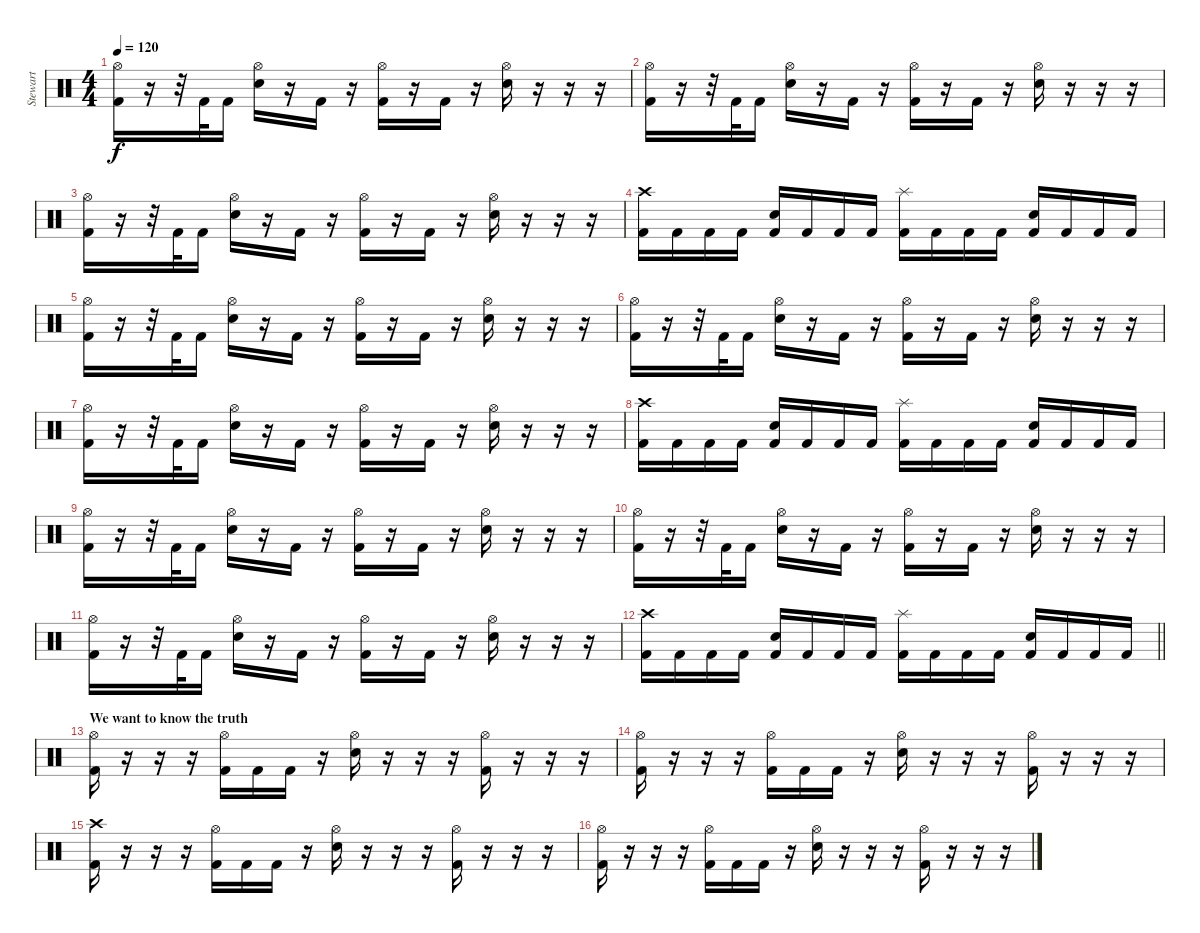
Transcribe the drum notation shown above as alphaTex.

\track ("Stewart" "Stewart") {instrument percussion}
\staff {score}
\articulation defaults
\ts (4 4)
\tempo 120
\clef neutral
\ks c
("Hi-Hat (open)" "Kick (hit) 2").16{dy f} r.16 r.32 "Kick (hit) 2".32 "Kick (hit) 2".16 ("Hi-Hat (open)" "Electric Snare (hit)").16 r.16 "Kick (hit) 2".16 r.16 ("Hi-Hat (open)" "Kick (hit) 2").16 r.16 "Kick (hit) 2".16 r.16 ("Hi-Hat (open)" "Electric Snare (hit)").16 r.16 r.16 r.16 |
("Hi-Hat (open)" "Kick (hit) 2").16 r.16 r.32 "Kick (hit) 2".32 "Kick (hit) 2".16 ("Hi-Hat (open)" "Electric Snare (hit)").16 r.16 "Kick (hit) 2".16 r.16 ("Hi-Hat (open)" "Kick (hit) 2").16 r.16 "Kick (hit) 2".16 r.16 ("Hi-Hat (open)" "Electric Snare (hit)").16 r.16 r.16 r.16 |
("Hi-Hat (open)" "Kick (hit) 2").16 r.16 r.32 "Kick (hit) 2".32 "Kick (hit) 2".16 ("Hi-Hat (open)" "Electric Snare (hit)").16 r.16 "Kick (hit) 2".16 r.16 ("Hi-Hat (open)" "Kick (hit) 2").16 r.16 "Kick (hit) 2".16 r.16 ("Hi-Hat (open)" "Electric Snare (hit)").16 r.16 r.16 r.16 |
("Crash high (hit)" "Kick (hit) 2").16 "Kick (hit) 2".16 "Kick (hit) 2".16 "Kick (hit) 2".16 ("Kick (hit) 2" "Electric Snare (hit)").16 "Kick (hit) 2".16 "Kick (hit) 2".16 "Kick (hit) 2".16 ("Splash (hit)" "Kick (hit) 2").16 "Kick (hit) 2".16 "Kick (hit) 2".16 "Kick (hit) 2".16 ("Kick (hit) 2" "Electric Snare (hit)").16 "Kick (hit) 2".16 "Kick (hit) 2".16 "Kick (hit) 2".16 |
("Hi-Hat (open)" "Kick (hit) 2").16 r.16 r.32 "Kick (hit) 2".32 "Kick (hit) 2".16 ("Hi-Hat (open)" "Electric Snare (hit)").16 r.16 "Kick (hit) 2".16 r.16 ("Hi-Hat (open)" "Kick (hit) 2").16 r.16 "Kick (hit) 2".16 r.16 ("Hi-Hat (open)" "Electric Snare (hit)").16 r.16 r.16 r.16 |
("Hi-Hat (open)" "Kick (hit) 2").16 r.16 r.32 "Kick (hit) 2".32 "Kick (hit) 2".16 ("Hi-Hat (open)" "Electric Snare (hit)").16 r.16 "Kick (hit) 2".16 r.16 ("Hi-Hat (open)" "Kick (hit) 2").16 r.16 "Kick (hit) 2".16 r.16 ("Hi-Hat (open)" "Electric Snare (hit)").16 r.16 r.16 r.16 |
("Hi-Hat (open)" "Kick (hit) 2").16 r.16 r.32 "Kick (hit) 2".32 "Kick (hit) 2".16 ("Hi-Hat (open)" "Electric Snare (hit)").16 r.16 "Kick (hit) 2".16 r.16 ("Hi-Hat (open)" "Kick (hit) 2").16 r.16 "Kick (hit) 2".16 r.16 ("Hi-Hat (open)" "Electric Snare (hit)").16 r.16 r.16 r.16 |
("Crash high (hit)" "Kick (hit) 2").16 "Kick (hit) 2".16 "Kick (hit) 2".16 "Kick (hit) 2".16 ("Kick (hit) 2" "Electric Snare (hit)").16 "Kick (hit) 2".16 "Kick (hit) 2".16 "Kick (hit) 2".16 ("Splash (hit)" "Kick (hit) 2").16 "Kick (hit) 2".16 "Kick (hit) 2".16 "Kick (hit) 2".16 ("Kick (hit) 2" "Electric Snare (hit)").16 "Kick (hit) 2".16 "Kick (hit) 2".16 "Kick (hit) 2".16 |
("Hi-Hat (open)" "Kick (hit) 2").16 r.16 r.32 "Kick (hit) 2".32 "Kick (hit) 2".16 ("Hi-Hat (open)" "Electric Snare (hit)").16 r.16 "Kick (hit) 2".16 r.16 ("Hi-Hat (open)" "Kick (hit) 2").16 r.16 "Kick (hit) 2".16 r.16 ("Hi-Hat (open)" "Electric Snare (hit)").16 r.16 r.16 r.16 |
("Hi-Hat (open)" "Kick (hit) 2").16 r.16 r.32 "Kick (hit) 2".32 "Kick (hit) 2".16 ("Hi-Hat (open)" "Electric Snare (hit)").16 r.16 "Kick (hit) 2".16 r.16 ("Hi-Hat (open)" "Kick (hit) 2").16 r.16 "Kick (hit) 2".16 r.16 ("Hi-Hat (open)" "Electric Snare (hit)").16 r.16 r.16 r.16 |
("Hi-Hat (open)" "Kick (hit) 2").16 r.16 r.32 "Kick (hit) 2".32 "Kick (hit) 2".16 ("Hi-Hat (open)" "Electric Snare (hit)").16 r.16 "Kick (hit) 2".16 r.16 ("Hi-Hat (open)" "Kick (hit) 2").16 r.16 "Kick (hit) 2".16 r.16 ("Hi-Hat (open)" "Electric Snare (hit)").16 r.16 r.16 r.16 |
\barLineRight lightlight
("Crash high (hit)" "Kick (hit) 2").16 "Kick (hit) 2".16 "Kick (hit) 2".16 "Kick (hit) 2".16 ("Kick (hit) 2" "Electric Snare (hit)").16 "Kick (hit) 2".16 "Kick (hit) 2".16 "Kick (hit) 2".16 ("Splash (hit)" "Kick (hit) 2").16 "Kick (hit) 2".16 "Kick (hit) 2".16 "Kick (hit) 2".16 ("Kick (hit) 2" "Electric Snare (hit)").16 "Kick (hit) 2".16 "Kick (hit) 2".16 "Kick (hit) 2".16 |
\section ("" "We want to know the truth")
("Hi-Hat (open)" "Kick (hit) 2").16 r.16 r.16 r.16 ("Hi-Hat (open)" "Kick (hit) 2").16 "Kick (hit) 2".16 "Kick (hit) 2".16 r.16 ("Hi-Hat (open)" "Electric Snare (hit)").16 r.16 r.16 r.16 ("Hi-Hat (open)" "Kick (hit) 2").16 r.16 r.16 r.16 |
("Hi-Hat (open)" "Kick (hit) 2").16 r.16 r.16 r.16 ("Hi-Hat (open)" "Kick (hit) 2").16 "Kick (hit) 2".16 "Kick (hit) 2".16 r.16 ("Hi-Hat (open)" "Electric Snare (hit)").16 r.16 r.16 r.16 ("Hi-Hat (open)" "Kick (hit) 2").16 r.16 r.16 r.16 |
("Crash high (hit)" "Kick (hit) 2").16 r.16 r.16 r.16 ("Hi-Hat (open)" "Kick (hit) 2").16 "Kick (hit) 2".16 "Kick (hit) 2".16 r.16 ("Hi-Hat (open)" "Electric Snare (hit)").16 r.16 r.16 r.16 ("Hi-Hat (open)" "Kick (hit) 2").16 r.16 r.16 r.16 |
("Hi-Hat (open)" "Kick (hit) 2").16 r.16 r.16 r.16 ("Hi-Hat (open)" "Kick (hit) 2").16 "Kick (hit) 2".16 "Kick (hit) 2".16 r.16 ("Hi-Hat (open)" "Electric Snare (hit)").16 r.16 r.16 r.16 ("Hi-Hat (open)" "Kick (hit) 2").16 r.16 r.16 r.16
